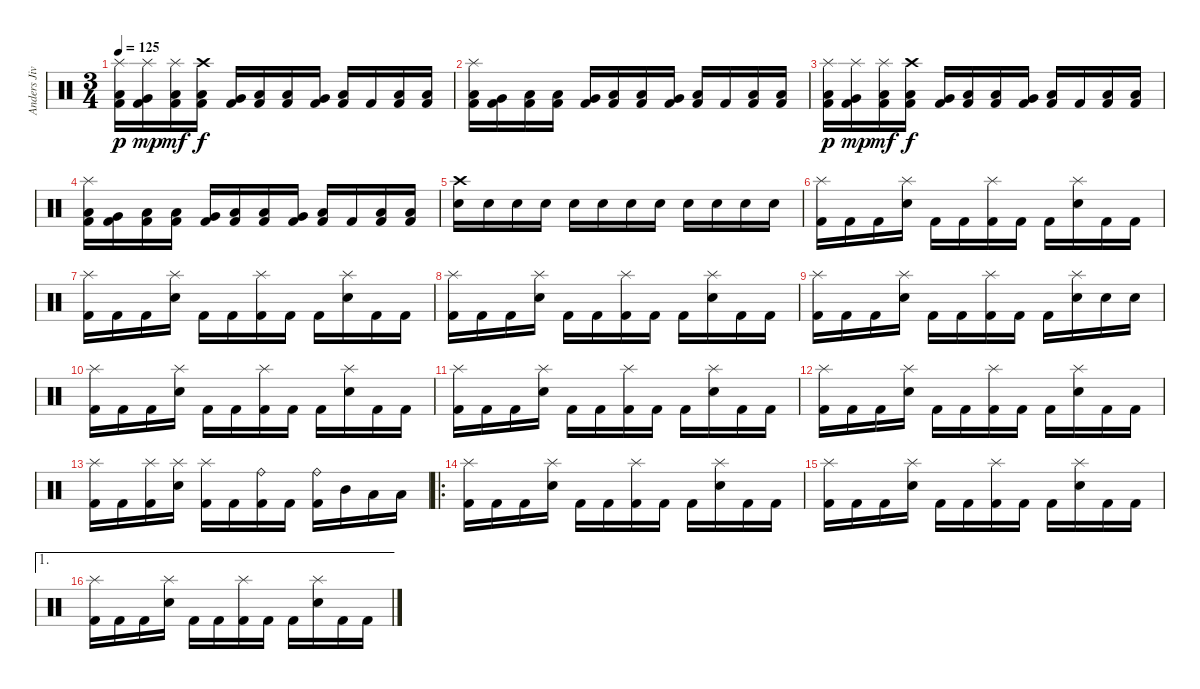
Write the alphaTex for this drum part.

\track ("Anders Jivarp" "Anders Jiv") {instrument percussion}
\staff {score}
\articulation defaults
\ts (3 4)
\tempo 125
\clef neutral
\ks c
("Splash (hit)" "Low Tom (hit)" "Kick (hit) 2").16{dy p} ("Splash (hit)" "Very Low Tom (hit)" "Kick (hit) 2").16{dy mp} ("Splash (hit)" "Low Floor Tom (hit)" "Kick (hit) 2").16{dy mf} ("Crash high (hit)" "Low Tom (hit)" "Kick (hit) 2").16{dy f} ("Very Low Tom (hit)" "Kick (hit) 2").16 ("Low Floor Tom (hit)" "Kick (hit) 2").16 ("Low Tom (hit)" "Kick (hit) 2").16 ("Very Low Tom (hit)" "Kick (hit) 2").16 ("Low Floor Tom (hit)" "Kick (hit) 2").16 "Kick (hit) 2".16 ("Low Floor Tom (hit)" "Kick (hit) 2").16 ("Low Floor Tom (hit)" "Kick (hit) 2").16 |
("Splash (hit)" "Low Tom (hit)" "Kick (hit) 2").16 ("Very Low Tom (hit)" "Kick (hit) 2").16 ("Low Floor Tom (hit)" "Kick (hit) 2").16 ("Low Tom (hit)" "Kick (hit) 2").16 ("Very Low Tom (hit)" "Kick (hit) 2").16 ("Low Floor Tom (hit)" "Kick (hit) 2").16 ("Low Tom (hit)" "Kick (hit) 2").16 ("Very Low Tom (hit)" "Kick (hit) 2").16 ("Low Floor Tom (hit)" "Kick (hit) 2").16 "Kick (hit) 2".16 ("Low Floor Tom (hit)" "Kick (hit) 2").16 ("Low Floor Tom (hit)" "Kick (hit) 2").16 |
("Splash (hit)" "Low Tom (hit)" "Kick (hit) 2").16{dy p} ("Splash (hit)" "Very Low Tom (hit)" "Kick (hit) 2").16{dy mp} ("Splash (hit)" "Low Floor Tom (hit)" "Kick (hit) 2").16{dy mf} ("Crash high (hit)" "Low Tom (hit)" "Kick (hit) 2").16{dy f} ("Very Low Tom (hit)" "Kick (hit) 2").16 ("Low Floor Tom (hit)" "Kick (hit) 2").16 ("Low Tom (hit)" "Kick (hit) 2").16 ("Very Low Tom (hit)" "Kick (hit) 2").16 ("Low Floor Tom (hit)" "Kick (hit) 2").16 "Kick (hit) 2".16 ("Low Floor Tom (hit)" "Kick (hit) 2").16 ("Low Floor Tom (hit)" "Kick (hit) 2").16 |
("Splash (hit)" "Low Tom (hit)" "Kick (hit) 2").16 ("Very Low Tom (hit)" "Kick (hit) 2").16 ("Low Floor Tom (hit)" "Kick (hit) 2").16 ("Low Tom (hit)" "Kick (hit) 2").16 ("Very Low Tom (hit)" "Kick (hit) 2").16 ("Low Floor Tom (hit)" "Kick (hit) 2").16 ("Low Tom (hit)" "Kick (hit) 2").16 ("Very Low Tom (hit)" "Kick (hit) 2").16 ("Low Floor Tom (hit)" "Kick (hit) 2").16 "Kick (hit) 2".16 ("Low Floor Tom (hit)" "Kick (hit) 2").16 ("Low Floor Tom (hit)" "Kick (hit) 2").16 |
("Crash high (hit)" "Electric Snare (hit)").16 "Electric Snare (hit)".16 "Electric Snare (hit)".16 "Electric Snare (hit)".16 "Electric Snare (hit)".16 "Electric Snare (hit)".16 "Electric Snare (hit)".16 "Electric Snare (hit)".16 "Electric Snare (hit)".16 "Electric Snare (hit)".16 "Electric Snare (hit)".16 "Electric Snare (hit)".16 |
("Splash (hit)" "Kick (hit) 2").16 "Kick (hit) 2".16 "Kick (hit) 2".16 ("Splash (hit)" "Electric Snare (hit)").16 "Kick (hit) 2".16 "Kick (hit) 2".16 ("Splash (hit)" "Kick (hit) 2").16 "Kick (hit) 2".16 "Kick (hit) 2".16 ("Splash (hit)" "Electric Snare (hit)").16 "Kick (hit) 2".16 "Kick (hit) 2".16 |
("Splash (hit)" "Kick (hit) 2").16 "Kick (hit) 2".16 "Kick (hit) 2".16 ("Splash (hit)" "Electric Snare (hit)").16 "Kick (hit) 2".16 "Kick (hit) 2".16 ("Splash (hit)" "Kick (hit) 2").16 "Kick (hit) 2".16 "Kick (hit) 2".16 ("Splash (hit)" "Electric Snare (hit)").16 "Kick (hit) 2".16 "Kick (hit) 2".16 |
("Splash (hit)" "Kick (hit) 2").16 "Kick (hit) 2".16 "Kick (hit) 2".16 ("Splash (hit)" "Electric Snare (hit)").16 "Kick (hit) 2".16 "Kick (hit) 2".16 ("Splash (hit)" "Kick (hit) 2").16 "Kick (hit) 2".16 "Kick (hit) 2".16 ("Splash (hit)" "Electric Snare (hit)").16 "Kick (hit) 2".16 "Kick (hit) 2".16 |
("Splash (hit)" "Kick (hit) 2").16 "Kick (hit) 2".16 "Kick (hit) 2".16 ("Splash (hit)" "Electric Snare (hit)").16 "Kick (hit) 2".16 "Kick (hit) 2".16 ("Splash (hit)" "Kick (hit) 2").16 "Kick (hit) 2".16 "Kick (hit) 2".16 ("Splash (hit)" "Electric Snare (hit)").16 "Electric Snare (hit)".16 "Electric Snare (hit)".16 |
("Splash (hit)" "Kick (hit) 2").16 "Kick (hit) 2".16 "Kick (hit) 2".16 ("Splash (hit)" "Electric Snare (hit)").16 "Kick (hit) 2".16 "Kick (hit) 2".16 ("Splash (hit)" "Kick (hit) 2").16 "Kick (hit) 2".16 "Kick (hit) 2".16 ("Splash (hit)" "Electric Snare (hit)").16 "Kick (hit) 2".16 "Kick (hit) 2".16 |
("Splash (hit)" "Kick (hit) 2").16 "Kick (hit) 2".16 "Kick (hit) 2".16 ("Splash (hit)" "Electric Snare (hit)").16 "Kick (hit) 2".16 "Kick (hit) 2".16 ("Splash (hit)" "Kick (hit) 2").16 "Kick (hit) 2".16 "Kick (hit) 2".16 ("Splash (hit)" "Electric Snare (hit)").16 "Kick (hit) 2".16 "Kick (hit) 2".16 |
("Splash (hit)" "Kick (hit) 2").16 "Kick (hit) 2".16 "Kick (hit) 2".16 ("Splash (hit)" "Electric Snare (hit)").16 "Kick (hit) 2".16 "Kick (hit) 2".16 ("Splash (hit)" "Kick (hit) 2").16 "Kick (hit) 2".16 "Kick (hit) 2".16 ("Splash (hit)" "Electric Snare (hit)").16 "Kick (hit) 2".16 "Kick (hit) 2".16 |
("Splash (hit)" "Kick (hit) 2").16 "Kick (hit) 2".16 ("Splash (hit)" "Kick (hit) 2").16 ("Splash (hit)" "Electric Snare (hit)").16 ("Splash (hit)" "Kick (hit) 2").16 "Kick (hit) 2".16 ("Ride (bell)" "Kick (hit) 2").16 "Kick (hit) 2".16 ("Ride (bell)" "Kick (hit) 2").16 "Mid Tom (hit)".16 "Low Tom (hit)".16 "Low Floor Tom (hit)".16 |
\ro
("Splash (hit)" "Kick (hit) 2").16 "Kick (hit) 2".16 "Kick (hit) 2".16 ("Splash (hit)" "Electric Snare (hit)").16 "Kick (hit) 2".16 "Kick (hit) 2".16 ("Splash (hit)" "Kick (hit) 2").16 "Kick (hit) 2".16 "Kick (hit) 2".16 ("Splash (hit)" "Electric Snare (hit)").16 "Kick (hit) 2".16 "Kick (hit) 2".16 |
("Splash (hit)" "Kick (hit) 2").16 "Kick (hit) 2".16 "Kick (hit) 2".16 ("Splash (hit)" "Electric Snare (hit)").16 "Kick (hit) 2".16 "Kick (hit) 2".16 ("Splash (hit)" "Kick (hit) 2").16 "Kick (hit) 2".16 "Kick (hit) 2".16 ("Splash (hit)" "Electric Snare (hit)").16 "Kick (hit) 2".16 "Kick (hit) 2".16 |
\ae 1
("Splash (hit)" "Kick (hit) 2").16 "Kick (hit) 2".16 "Kick (hit) 2".16 ("Splash (hit)" "Electric Snare (hit)").16 "Kick (hit) 2".16 "Kick (hit) 2".16 ("Splash (hit)" "Kick (hit) 2").16 "Kick (hit) 2".16 "Kick (hit) 2".16 ("Splash (hit)" "Electric Snare (hit)").16 "Kick (hit) 2".16 "Kick (hit) 2".16
